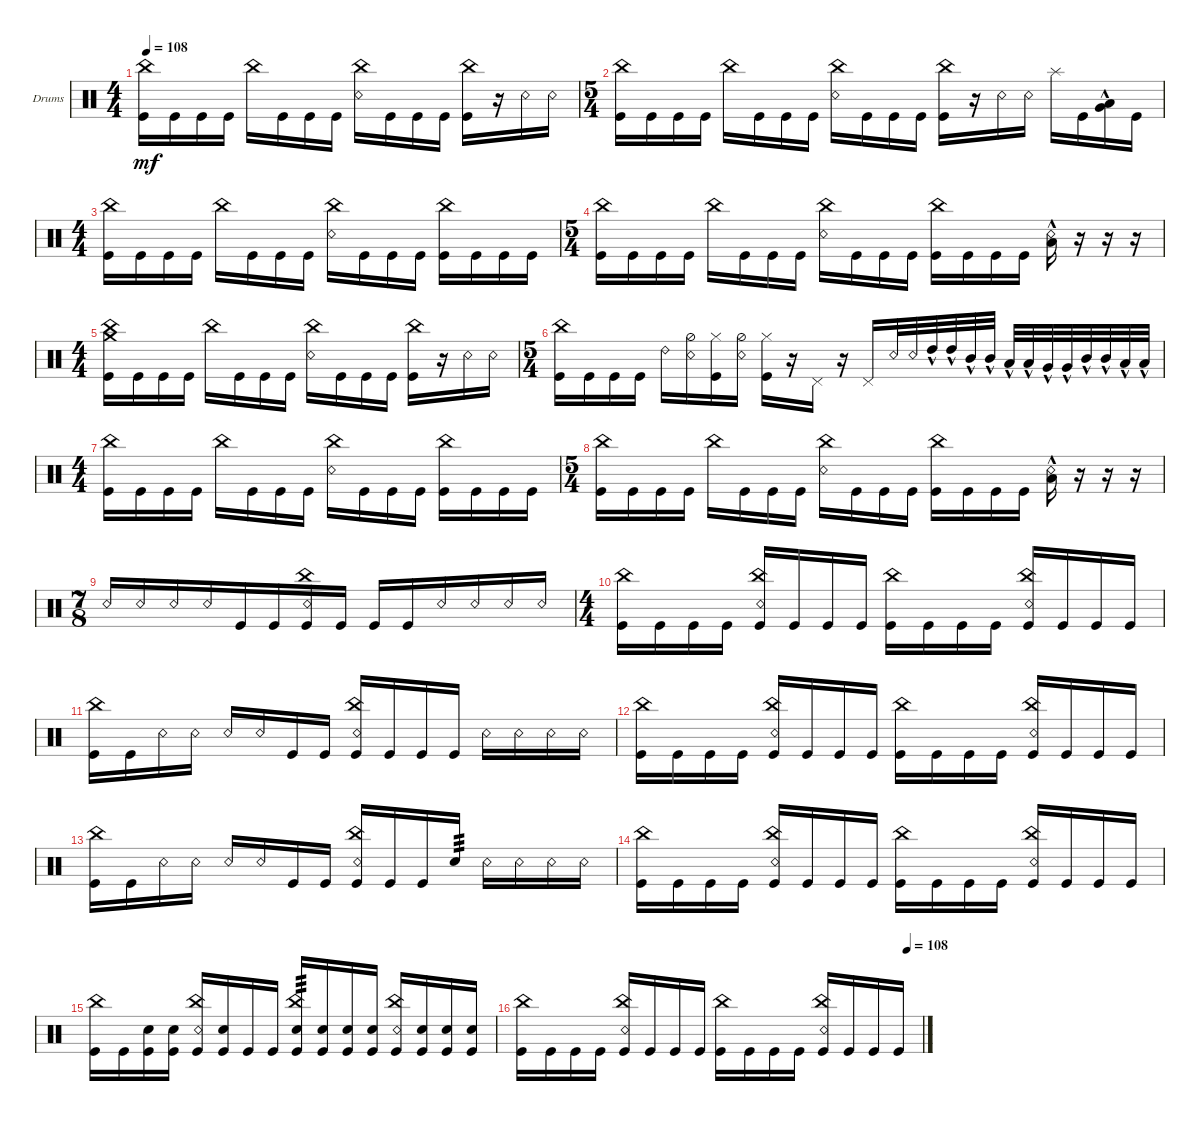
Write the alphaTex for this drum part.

\defaultSystemsLayout 4
\bracketExtendMode groupsimilarinstruments
\firstSystemTrackNameOrientation horizontal
\otherSystemsTrackNameOrientation horizontal
\track ("Drumkit" "Drums") {instrument percussion}
\staff {score}
\articulation defaults
\ts (4 4)
\tempo 108
\clef neutral
\ks c
("Kick (hit)" "China (hit)").16{dy mf} "Kick (hit)".16 "Kick (hit)".16 "Kick (hit)".16 "China (hit)".16 "Kick (hit)".16 "Kick (hit)".16 "Kick (hit)".16 ("Snare (rim shot)" "China (hit)").16 "Kick (hit)".16 "Kick (hit)".16 "Kick (hit)".16 ("Kick (hit)" "China (hit)").16 r.16 "Snare (rim shot)".16 "Snare (rim shot)".16 |
\ts (5 4)
("Kick (hit)" "China (hit)").16 "Kick (hit)".16 "Kick (hit)".16 "Kick (hit)".16 "China (hit)".16 "Kick (hit)".16 "Kick (hit)".16 "Kick (hit)".16 ("Snare (rim shot)" "China (hit)").16 "Kick (hit)".16 "Kick (hit)".16 "Kick (hit)".16 ("Kick (hit)" "China (hit)").16 r.16 "Snare (rim shot)".16 "Snare (rim shot)".16 "Splash (hit)".16 "Kick (hit)".16 ("Very Low Tom (hit)"{hac} "Low Tom (hit)"{hac}).16 "Kick (hit)".16 |
\ts (4 4)
("Kick (hit)" "China (hit)").16 "Kick (hit)".16 "Kick (hit)".16 "Kick (hit)".16 "China (hit)".16 "Kick (hit)".16 "Kick (hit)".16 "Kick (hit)".16 ("Snare (rim shot)" "China (hit)").16 "Kick (hit)".16 "Kick (hit)".16 "Kick (hit)".16 ("Kick (hit)" "China (hit)").16 "Kick (hit)".16 "Kick (hit)".16 "Kick (hit)".16 |
\ts (5 4)
("Kick (hit)" "China (hit)").16 "Kick (hit)".16 "Kick (hit)".16 "Kick (hit)".16 "China (hit)".16 "Kick (hit)".16 "Kick (hit)".16 "Kick (hit)".16 ("Snare (rim shot)" "China (hit)").16 "Kick (hit)".16 "Kick (hit)".16 "Kick (hit)".16 ("Kick (hit)" "China (hit)").16 "Kick (hit)".16 "Kick (hit)".16 "Kick (hit)".16 ("Snare (rim shot)"{hac} "Low Tom (hit)"{hac}).16 r.16 r.16 r.16 |
\ts (4 4)
("Kick (hit)" "China (hit)" "Crash medium (hit)").16 "Kick (hit)".16 "Kick (hit)".16 "Kick (hit)".16 "China (hit)".16 "Kick (hit)".16 "Kick (hit)".16 "Kick (hit)".16 ("Snare (rim shot)" "China (hit)").16 "Kick (hit)".16 "Kick (hit)".16 "Kick (hit)".16 ("Kick (hit)" "China (hit)").16 r.16 "Snare (rim shot)".16 "Snare (rim shot)".16 |
\ts (5 4)
("Kick (hit)" "China (hit)").16 "Kick (hit)".16 "Kick (hit)".16 "Kick (hit)".16 "Ride (bell) 2".16 ("Snare (rim shot)" "Hi-Hat (half)").16 ("Hi-Hat (closed)" "Kick (hit)").16 ("Snare (rim shot)" "Hi-Hat (half)").16 ("Hi-Hat (closed)" "Kick (hit)").16 r.16 "Pedal Hi-Hat (hit)".16 r.16 "Pedal Hi-Hat (hit)".16 "Snare (rim shot)".32 "Snare (rim shot)".32 "High Tom (hit)"{hac}.32 "High Tom (hit)"{hac}.32 "Mid Tom (hit)"{hac}.32 "Mid Tom (hit)"{hac}.32 "Low Tom (hit)"{hac}.32 "Low Tom (hit)"{hac}.32 "Very Low Tom (hit)"{hac}.32 "Very Low Tom (hit)"{hac}.32 "Mid Tom (hit)"{hac}.32 "Mid Tom (hit)"{hac}.32 "Low Tom (hit)"{hac}.32 "Low Tom (hit)"{hac}.32 |
\ts (4 4)
("Kick (hit)" "China (hit)").16 "Kick (hit)".16 "Kick (hit)".16 "Kick (hit)".16 "China (hit)".16 "Kick (hit)".16 "Kick (hit)".16 "Kick (hit)".16 ("Snare (rim shot)" "China (hit)").16 "Kick (hit)".16 "Kick (hit)".16 "Kick (hit)".16 ("Kick (hit)" "China (hit)").16 "Kick (hit)".16 "Kick (hit)".16 "Kick (hit)".16 |
\ts (5 4)
("Kick (hit)" "China (hit)").16 "Kick (hit)".16 "Kick (hit)".16 "Kick (hit)".16 "China (hit)".16 "Kick (hit)".16 "Kick (hit)".16 "Kick (hit)".16 ("Snare (rim shot)" "China (hit)").16 "Kick (hit)".16 "Kick (hit)".16 "Kick (hit)".16 ("Kick (hit)" "China (hit)").16 "Kick (hit)".16 "Kick (hit)".16 "Kick (hit)".16 ("Snare (rim shot)"{hac} "Low Tom (hit)"{hac}).16 r.16 r.16 r.16 |
\ts (7 8)
"Snare (rim shot)".16 "Snare (rim shot)".16 "Snare (rim shot)".16 "Snare (rim shot)".16 "Kick (hit)".16 "Kick (hit)".16 ("Kick (hit)" "Snare (rim shot)" "China (hit)").16 "Kick (hit)".16 "Kick (hit)".16 "Kick (hit)".16 "Snare (rim shot)".16 "Snare (rim shot)".16 "Snare (rim shot)".16 "Snare (rim shot)".16 |
\ts (4 4)
("Kick (hit)" "China (hit)").16 "Kick (hit)".16 "Kick (hit)".16 "Kick (hit)".16 ("Kick (hit)" "China (hit)" "Snare (rim shot)").16 "Kick (hit)".16 "Kick (hit)".16 "Kick (hit)".16 ("Kick (hit)" "China (hit)").16 "Kick (hit)".16 "Kick (hit)".16 "Kick (hit)".16 ("Kick (hit)" "China (hit)" "Snare (rim shot)").16 "Kick (hit)".16 "Kick (hit)".16 "Kick (hit)".16 |
("Kick (hit)" "China (hit)").16 "Kick (hit)".16 "Snare (rim shot)".16 "Snare (rim shot)".16 "Snare (rim shot)".16 "Snare (rim shot)".16 "Kick (hit)".16 "Kick (hit)".16 ("Kick (hit)" "Snare (rim shot)" "China (hit)").16 "Kick (hit)".16 "Kick (hit)".16 "Kick (hit)".16 "Snare (rim shot)".16 "Snare (rim shot)".16 "Snare (rim shot)".16 "Snare (rim shot)".16 |
("Kick (hit)" "China (hit)").16 "Kick (hit)".16 "Kick (hit)".16 "Kick (hit)".16 ("Kick (hit)" "China (hit)" "Snare (rim shot)").16 "Kick (hit)".16 "Kick (hit)".16 "Kick (hit)".16 ("Kick (hit)" "China (hit)").16 "Kick (hit)".16 "Kick (hit)".16 "Kick (hit)".16 ("Kick (hit)" "China (hit)" "Snare (rim shot)").16 "Kick (hit)".16 "Kick (hit)".16 "Kick (hit)".16 |
("Kick (hit)" "China (hit)").16 "Kick (hit)".16 "Snare (rim shot)".16 "Snare (rim shot)".16 "Snare (rim shot)".16 "Snare (rim shot)".16 "Kick (hit)".16 "Kick (hit)".16 ("Kick (hit)" "Snare (rim shot)" "China (hit)").16 "Kick (hit)".16 "Kick (hit)".16 "Snare (hit) 2".16{tp 3} "Snare (rim shot)".16 "Snare (rim shot)".16 "Snare (rim shot)".16 "Snare (rim shot)".16 |
("Kick (hit)" "China (hit)").16 "Kick (hit)".16 "Kick (hit)".16 "Kick (hit)".16 ("Kick (hit)" "China (hit)" "Snare (rim shot)").16 "Kick (hit)".16 "Kick (hit)".16 "Kick (hit)".16 ("Kick (hit)" "China (hit)").16 "Kick (hit)".16 "Kick (hit)".16 "Kick (hit)".16 ("Kick (hit)" "China (hit)" "Snare (rim shot)").16 "Kick (hit)".16 "Kick (hit)".16 "Kick (hit)".16 |
("Kick (hit)" "China (hit)").16 "Kick (hit)".16 ("Kick (hit)" "Snare (hit) 2").16 ("Kick (hit)" "Snare (hit) 2").16 ("Snare (rim shot)" "China (hit)" "Kick (hit)").16 ("Kick (hit)" "Snare (hit) 2").16 "Kick (hit)".16 "Kick (hit)".16 ("Kick (hit)" "China (hit)" "Snare (hit) 2").16{tp 3} ("Kick (hit)" "Snare (hit) 2").16 ("Kick (hit)" "Snare (hit) 2").16 ("Kick (hit)" "Snare (hit) 2").16 ("Snare (rim shot)" "Kick (hit)" "China (hit)").16 ("Kick (hit)" "Snare (hit) 2").16 ("Kick (hit)" "Snare (hit) 2").16 ("Kick (hit)" "Snare (hit) 2").16 |
\tempo (108 0.9625)
("Kick (hit)" "China (hit)").16 "Kick (hit)".16 "Kick (hit)".16 "Kick (hit)".16 ("Kick (hit)" "China (hit)" "Snare (rim shot)").16 "Kick (hit)".16 "Kick (hit)".16 "Kick (hit)".16 ("Kick (hit)" "China (hit)").16 "Kick (hit)".16 "Kick (hit)".16 "Kick (hit)".16 ("Kick (hit)" "China (hit)" "Snare (rim shot)").16 "Kick (hit)".16 "Kick (hit)".16 "Kick (hit)".16
